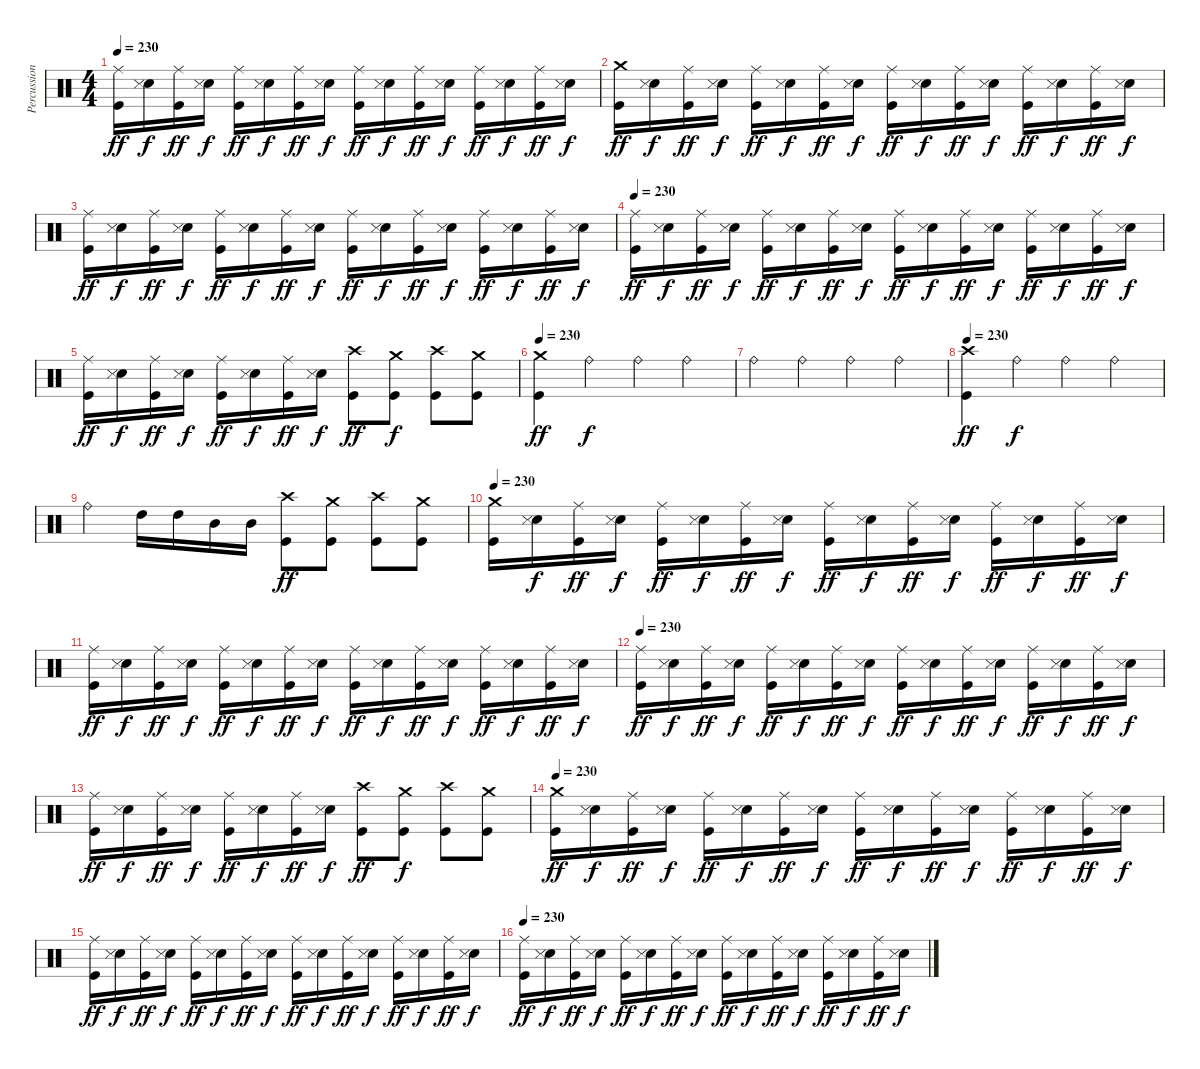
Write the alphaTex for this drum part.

\track ("Percussions" "Percussion") {instrument percussion}
\staff {score}
\articulation defaults
\ts (4 4)
\tempo 230
\clef neutral
\ks c
("Ride (middle)" "Kick (hit)").16{dy ff} ("Electric Snare (hit)" "Snare (side stick) 3").16{dy f} ("Ride (middle)" "Kick (hit)").16{dy ff} ("Electric Snare (hit)" "Snare (side stick) 3").16{dy f} ("Ride (middle)" "Kick (hit)").16{dy ff} ("Electric Snare (hit)" "Snare (side stick) 3").16{dy f} ("Ride (middle)" "Kick (hit)").16{dy ff} ("Electric Snare (hit)" "Snare (side stick) 3").16{dy f} ("Ride (middle)" "Kick (hit)").16{dy ff} ("Electric Snare (hit)" "Snare (side stick) 3").16{dy f} ("Ride (middle)" "Kick (hit)").16{dy ff} ("Electric Snare (hit)" "Snare (side stick) 3").16{dy f} ("Ride (middle)" "Kick (hit)").16{dy ff} ("Electric Snare (hit)" "Snare (side stick) 3").16{dy f} ("Ride (middle)" "Kick (hit)").16{dy ff} ("Electric Snare (hit)" "Snare (side stick) 3").16{dy f} |
("Crash medium (hit)" "Kick (hit)").16{dy ff} ("Electric Snare (hit)" "Snare (side stick) 3").16{dy f} ("Ride (middle)" "Kick (hit)").16{dy ff} ("Electric Snare (hit)" "Snare (side stick) 3").16{dy f} ("Ride (middle)" "Kick (hit)").16{dy ff} ("Electric Snare (hit)" "Snare (side stick) 3").16{dy f} ("Ride (middle)" "Kick (hit)").16{dy ff} ("Electric Snare (hit)" "Snare (side stick) 3").16{dy f} ("Ride (middle)" "Kick (hit)").16{dy ff} ("Electric Snare (hit)" "Snare (side stick) 3").16{dy f} ("Ride (middle)" "Kick (hit)").16{dy ff} ("Electric Snare (hit)" "Snare (side stick) 3").16{dy f} ("Ride (middle)" "Kick (hit)").16{dy ff} ("Electric Snare (hit)" "Snare (side stick) 3").16{dy f} ("Ride (middle)" "Kick (hit)").16{dy ff} ("Electric Snare (hit)" "Snare (side stick) 3").16{dy f} |
("Ride (middle)" "Kick (hit)").16{dy ff} ("Electric Snare (hit)" "Snare (side stick) 3").16{dy f} ("Ride (middle)" "Kick (hit)").16{dy ff} ("Electric Snare (hit)" "Snare (side stick) 3").16{dy f} ("Ride (middle)" "Kick (hit)").16{dy ff} ("Electric Snare (hit)" "Snare (side stick) 3").16{dy f} ("Ride (middle)" "Kick (hit)").16{dy ff} ("Electric Snare (hit)" "Snare (side stick) 3").16{dy f} ("Ride (middle)" "Kick (hit)").16{dy ff} ("Electric Snare (hit)" "Snare (side stick) 3").16{dy f} ("Ride (middle)" "Kick (hit)").16{dy ff} ("Electric Snare (hit)" "Snare (side stick) 3").16{dy f} ("Ride (middle)" "Kick (hit)").16{dy ff} ("Electric Snare (hit)" "Snare (side stick) 3").16{dy f} ("Ride (middle)" "Kick (hit)").16{dy ff} ("Electric Snare (hit)" "Snare (side stick) 3").16{dy f} |
\tempo 230
("Ride (middle)" "Kick (hit)").16{dy ff} ("Electric Snare (hit)" "Snare (side stick) 3").16{dy f} ("Ride (middle)" "Kick (hit)").16{dy ff} ("Electric Snare (hit)" "Snare (side stick) 3").16{dy f} ("Ride (middle)" "Kick (hit)").16{dy ff} ("Electric Snare (hit)" "Snare (side stick) 3").16{dy f} ("Ride (middle)" "Kick (hit)").16{dy ff} ("Electric Snare (hit)" "Snare (side stick) 3").16{dy f} ("Ride (middle)" "Kick (hit)").16{dy ff} ("Electric Snare (hit)" "Snare (side stick) 3").16{dy f} ("Ride (middle)" "Kick (hit)").16{dy ff} ("Electric Snare (hit)" "Snare (side stick) 3").16{dy f} ("Ride (middle)" "Kick (hit)").16{dy ff} ("Electric Snare (hit)" "Snare (side stick) 3").16{dy f} ("Ride (middle)" "Kick (hit)").16{dy ff} ("Electric Snare (hit)" "Snare (side stick) 3").16{dy f} |
("Ride (middle)" "Kick (hit)").16{dy ff} ("Electric Snare (hit)" "Snare (side stick) 3").16{dy f} ("Ride (middle)" "Kick (hit)").16{dy ff} ("Electric Snare (hit)" "Snare (side stick) 3").16{dy f} ("Ride (middle)" "Kick (hit)").16{dy ff} ("Electric Snare (hit)" "Snare (side stick) 3").16{dy f} ("Ride (middle)" "Kick (hit)").16{dy ff} ("Electric Snare (hit)" "Snare (side stick) 3").16{dy f} ("Crash high (hit)" "Kick (hit)").8{dy ff} ("Crash medium (hit)" "Kick (hit)").8{dy f} ("Crash high (hit)" "Kick (hit)").8 ("Crash medium (hit)" "Kick (hit)").8 |
\tempo 230
("Crash medium (hit)" "Kick (hit)").4{dy ff} "Ride (bell)".4{dy f} "Ride (bell)".4 "Ride (bell)".4 |
"Ride (bell)".4 "Ride (bell)".4 "Ride (bell)".4 "Ride (bell)".4 |
\tempo 230
("Crash high (hit)" "Kick (hit)").4{dy ff} "Ride (bell)".4{dy f} "Ride (bell)".4 "Ride (bell)".4 |
"Ride (bell)".4 "High Tom (hit)".16 "High Tom (hit)".16 "Mid Tom (hit)".16 "Mid Tom (hit)".16 ("Crash high (hit)" "Kick (hit)").8{dy ff} ("Crash medium (hit)" "Kick (hit)").8 ("Crash high (hit)" "Kick (hit)").8 ("Crash medium (hit)" "Kick (hit)").8 |
\tempo 230
("Crash medium (hit)" "Kick (hit)").16 ("Electric Snare (hit)" "Snare (side stick) 3").16{dy f} ("Ride (middle)" "Kick (hit)").16{dy ff} ("Electric Snare (hit)" "Snare (side stick) 3").16{dy f} ("Ride (middle)" "Kick (hit)").16{dy ff} ("Electric Snare (hit)" "Snare (side stick) 3").16{dy f} ("Ride (middle)" "Kick (hit)").16{dy ff} ("Electric Snare (hit)" "Snare (side stick) 3").16{dy f} ("Ride (middle)" "Kick (hit)").16{dy ff} ("Electric Snare (hit)" "Snare (side stick) 3").16{dy f} ("Ride (middle)" "Kick (hit)").16{dy ff} ("Electric Snare (hit)" "Snare (side stick) 3").16{dy f} ("Ride (middle)" "Kick (hit)").16{dy ff} ("Electric Snare (hit)" "Snare (side stick) 3").16{dy f} ("Ride (middle)" "Kick (hit)").16{dy ff} ("Electric Snare (hit)" "Snare (side stick) 3").16{dy f} |
("Ride (middle)" "Kick (hit)").16{dy ff} ("Electric Snare (hit)" "Snare (side stick) 3").16{dy f} ("Ride (middle)" "Kick (hit)").16{dy ff} ("Electric Snare (hit)" "Snare (side stick) 3").16{dy f} ("Ride (middle)" "Kick (hit)").16{dy ff} ("Electric Snare (hit)" "Snare (side stick) 3").16{dy f} ("Ride (middle)" "Kick (hit)").16{dy ff} ("Electric Snare (hit)" "Snare (side stick) 3").16{dy f} ("Ride (middle)" "Kick (hit)").16{dy ff} ("Electric Snare (hit)" "Snare (side stick) 3").16{dy f} ("Ride (middle)" "Kick (hit)").16{dy ff} ("Electric Snare (hit)" "Snare (side stick) 3").16{dy f} ("Ride (middle)" "Kick (hit)").16{dy ff} ("Electric Snare (hit)" "Snare (side stick) 3").16{dy f} ("Ride (middle)" "Kick (hit)").16{dy ff} ("Electric Snare (hit)" "Snare (side stick) 3").16{dy f} |
\tempo 230
("Ride (middle)" "Kick (hit)").16{dy ff} ("Electric Snare (hit)" "Snare (side stick) 3").16{dy f} ("Ride (middle)" "Kick (hit)").16{dy ff} ("Electric Snare (hit)" "Snare (side stick) 3").16{dy f} ("Ride (middle)" "Kick (hit)").16{dy ff} ("Electric Snare (hit)" "Snare (side stick) 3").16{dy f} ("Ride (middle)" "Kick (hit)").16{dy ff} ("Electric Snare (hit)" "Snare (side stick) 3").16{dy f} ("Ride (middle)" "Kick (hit)").16{dy ff} ("Electric Snare (hit)" "Snare (side stick) 3").16{dy f} ("Ride (middle)" "Kick (hit)").16{dy ff} ("Electric Snare (hit)" "Snare (side stick) 3").16{dy f} ("Ride (middle)" "Kick (hit)").16{dy ff} ("Electric Snare (hit)" "Snare (side stick) 3").16{dy f} ("Ride (middle)" "Kick (hit)").16{dy ff} ("Electric Snare (hit)" "Snare (side stick) 3").16{dy f} |
("Ride (middle)" "Kick (hit)").16{dy ff} ("Electric Snare (hit)" "Snare (side stick) 3").16{dy f} ("Ride (middle)" "Kick (hit)").16{dy ff} ("Electric Snare (hit)" "Snare (side stick) 3").16{dy f} ("Ride (middle)" "Kick (hit)").16{dy ff} ("Electric Snare (hit)" "Snare (side stick) 3").16{dy f} ("Ride (middle)" "Kick (hit)").16{dy ff} ("Electric Snare (hit)" "Snare (side stick) 3").16{dy f} ("Crash high (hit)" "Kick (hit)").8{dy ff} ("Crash medium (hit)" "Kick (hit)").8{dy f} ("Crash high (hit)" "Kick (hit)").8 ("Crash medium (hit)" "Kick (hit)").8 |
\tempo 230
("Crash medium (hit)" "Kick (hit)").16{dy ff} ("Electric Snare (hit)" "Snare (side stick) 3").16{dy f} ("Ride (middle)" "Kick (hit)").16{dy ff} ("Electric Snare (hit)" "Snare (side stick) 3").16{dy f} ("Ride (middle)" "Kick (hit)").16{dy ff} ("Electric Snare (hit)" "Snare (side stick) 3").16{dy f} ("Ride (middle)" "Kick (hit)").16{dy ff} ("Electric Snare (hit)" "Snare (side stick) 3").16{dy f} ("Ride (middle)" "Kick (hit)").16{dy ff} ("Electric Snare (hit)" "Snare (side stick) 3").16{dy f} ("Ride (middle)" "Kick (hit)").16{dy ff} ("Electric Snare (hit)" "Snare (side stick) 3").16{dy f} ("Ride (middle)" "Kick (hit)").16{dy ff} ("Electric Snare (hit)" "Snare (side stick) 3").16{dy f} ("Ride (middle)" "Kick (hit)").16{dy ff} ("Electric Snare (hit)" "Snare (side stick) 3").16{dy f} |
("Ride (middle)" "Kick (hit)").16{dy ff} ("Electric Snare (hit)" "Snare (side stick) 3").16{dy f} ("Ride (middle)" "Kick (hit)").16{dy ff} ("Electric Snare (hit)" "Snare (side stick) 3").16{dy f} ("Ride (middle)" "Kick (hit)").16{dy ff} ("Electric Snare (hit)" "Snare (side stick) 3").16{dy f} ("Ride (middle)" "Kick (hit)").16{dy ff} ("Electric Snare (hit)" "Snare (side stick) 3").16{dy f} ("Ride (middle)" "Kick (hit)").16{dy ff} ("Electric Snare (hit)" "Snare (side stick) 3").16{dy f} ("Ride (middle)" "Kick (hit)").16{dy ff} ("Electric Snare (hit)" "Snare (side stick) 3").16{dy f} ("Ride (middle)" "Kick (hit)").16{dy ff} ("Electric Snare (hit)" "Snare (side stick) 3").16{dy f} ("Ride (middle)" "Kick (hit)").16{dy ff} ("Electric Snare (hit)" "Snare (side stick) 3").16{dy f} |
\tempo 230
("Ride (middle)" "Kick (hit)").16{dy ff} ("Electric Snare (hit)" "Snare (side stick) 3").16{dy f} ("Ride (middle)" "Kick (hit)").16{dy ff} ("Electric Snare (hit)" "Snare (side stick) 3").16{dy f} ("Ride (middle)" "Kick (hit)").16{dy ff} ("Electric Snare (hit)" "Snare (side stick) 3").16{dy f} ("Ride (middle)" "Kick (hit)").16{dy ff} ("Electric Snare (hit)" "Snare (side stick) 3").16{dy f} ("Ride (middle)" "Kick (hit)").16{dy ff} ("Electric Snare (hit)" "Snare (side stick) 3").16{dy f} ("Ride (middle)" "Kick (hit)").16{dy ff} ("Electric Snare (hit)" "Snare (side stick) 3").16{dy f} ("Ride (middle)" "Kick (hit)").16{dy ff} ("Electric Snare (hit)" "Snare (side stick) 3").16{dy f} ("Ride (middle)" "Kick (hit)").16{dy ff} ("Electric Snare (hit)" "Snare (side stick) 3").16{dy f}
